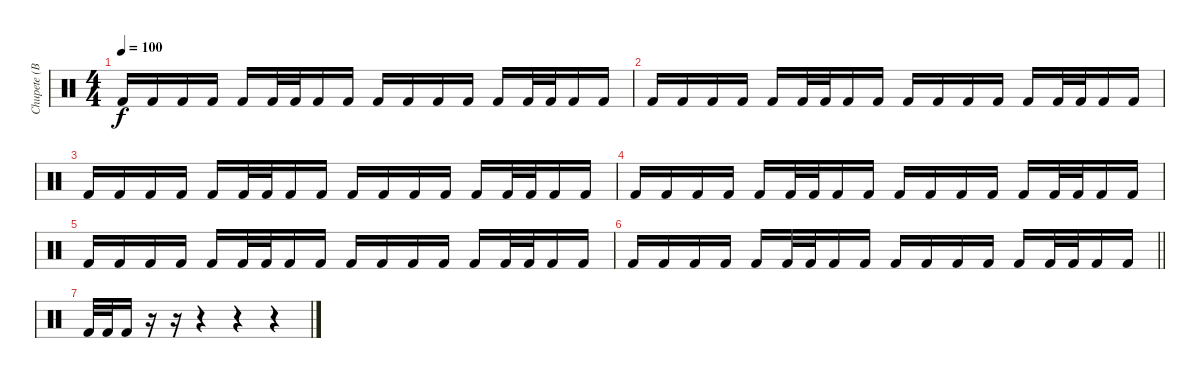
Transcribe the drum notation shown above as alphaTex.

\track ("Chupete (Bateria Bombo)" "Chupete (B") {instrument percussion}
\staff {score}
\articulation defaults
\ts (4 4)
\tempo 100
\clef neutral
\ks c "Kick (hit) 2".16{dy f} "Kick (hit) 2".16 "Kick (hit) 2".16 "Kick (hit) 2".16 "Kick (hit) 2".16 "Kick (hit) 2".32 "Kick (hit) 2".32 "Kick (hit) 2".16 "Kick (hit) 2".16 "Kick (hit) 2".16 "Kick (hit) 2".16 "Kick (hit) 2".16 "Kick (hit) 2".16 "Kick (hit) 2".16 "Kick (hit) 2".32 "Kick (hit) 2".32 "Kick (hit) 2".16 "Kick (hit) 2".16
|
"Kick (hit) 2".16 "Kick (hit) 2".16 "Kick (hit) 2".16 "Kick (hit) 2".16 "Kick (hit) 2".16 "Kick (hit) 2".32 "Kick (hit) 2".32 "Kick (hit) 2".16 "Kick (hit) 2".16 "Kick (hit) 2".16 "Kick (hit) 2".16 "Kick (hit) 2".16 "Kick (hit) 2".16 "Kick (hit) 2".16 "Kick (hit) 2".32 "Kick (hit) 2".32 "Kick (hit) 2".16 "Kick (hit) 2".16 |
"Kick (hit) 2".16 "Kick (hit) 2".16 "Kick (hit) 2".16 "Kick (hit) 2".16 "Kick (hit) 2".16 "Kick (hit) 2".32 "Kick (hit) 2".32 "Kick (hit) 2".16 "Kick (hit) 2".16 "Kick (hit) 2".16 "Kick (hit) 2".16 "Kick (hit) 2".16 "Kick (hit) 2".16 "Kick (hit) 2".16 "Kick (hit) 2".32 "Kick (hit) 2".32 "Kick (hit) 2".16 "Kick (hit) 2".16 |
"Kick (hit) 2".16 "Kick (hit) 2".16 "Kick (hit) 2".16 "Kick (hit) 2".16 "Kick (hit) 2".16 "Kick (hit) 2".32 "Kick (hit) 2".32 "Kick (hit) 2".16 "Kick (hit) 2".16 "Kick (hit) 2".16 "Kick (hit) 2".16 "Kick (hit) 2".16 "Kick (hit) 2".16 "Kick (hit) 2".16 "Kick (hit) 2".32 "Kick (hit) 2".32 "Kick (hit) 2".16 "Kick (hit) 2".16 |
"Kick (hit) 2".16 "Kick (hit) 2".16 "Kick (hit) 2".16 "Kick (hit) 2".16 "Kick (hit) 2".16 "Kick (hit) 2".32 "Kick (hit) 2".32 "Kick (hit) 2".16 "Kick (hit) 2".16 "Kick (hit) 2".16 "Kick (hit) 2".16 "Kick (hit) 2".16 "Kick (hit) 2".16 "Kick (hit) 2".16 "Kick (hit) 2".32 "Kick (hit) 2".32 "Kick (hit) 2".16 "Kick (hit) 2".16 |
\barLineRight lightlight "Kick (hit) 2".16 "Kick (hit) 2".16 "Kick (hit) 2".16 "Kick (hit) 2".16 "Kick (hit) 2".16 "Kick (hit) 2".32 "Kick (hit) 2".32 "Kick (hit) 2".16 "Kick (hit) 2".16 "Kick (hit) 2".16 "Kick (hit) 2".16 "Kick (hit) 2".16 "Kick (hit) 2".16 "Kick (hit) 2".16 "Kick (hit) 2".32 "Kick (hit) 2".32 "Kick (hit) 2".16 "Kick (hit) 2".16
|
"Kick (hit) 2".32 "Kick (hit) 2".32 "Kick (hit) 2".16 r.16 r.16 r.4 r.4 r.4
